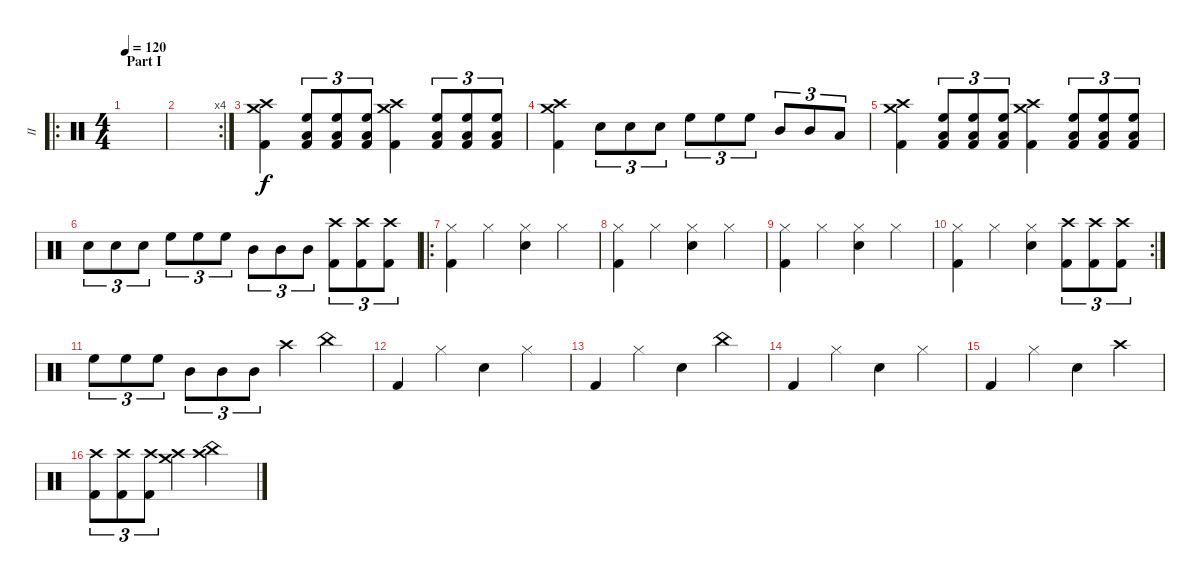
\track ("II" "II") {instrument percussion}
\staff {score}
\articulation defaults
\ro
\ts (4 4)
\section ("" "Part I")
\tempo 120
\clef neutral
\ks c
|
\rc 4
|
("Kick (hit) 2" "Crash high (hit)" "Crash medium (hit)").4 ("Kick (hit) 2" "High Floor Tom (hit)" "Low Floor Tom (hit)").8{tu (3 2)} ("Kick (hit) 2" "High Floor Tom (hit)" "Low Floor Tom (hit)").8{tu (3 2)} ("Kick (hit) 2" "High Floor Tom (hit)" "Low Floor Tom (hit)").8{tu (3 2)} ("Kick (hit) 2" "Crash high (hit)" "Crash medium (hit)").4 ("Kick (hit) 2" "High Floor Tom (hit)" "Low Floor Tom (hit)").8{tu (3 2)} ("Kick (hit) 2" "High Floor Tom (hit)" "Low Floor Tom (hit)").8{tu (3 2)} ("Kick (hit) 2" "High Floor Tom (hit)" "Low Floor Tom (hit)").8{tu (3 2)} |
("Kick (hit) 2" "Crash high (hit)" "Crash medium (hit)").4 "Snare (hit) 2".8{tu (3 2)} "Snare (hit) 2".8{tu (3 2)} "Snare (hit) 2".8{tu (3 2)} "High Floor Tom (hit)".8{tu (3 2)} "High Floor Tom (hit)".8{tu (3 2)} "High Floor Tom (hit)".8{tu (3 2)} "Mid Tom (hit)".8{tu (3 2)} "Mid Tom (hit)".8{tu (3 2)} "Low Floor Tom (hit)".8{tu (3 2)} |
("Kick (hit) 2" "Crash high (hit)" "Crash medium (hit)").4 ("Kick (hit) 2" "High Floor Tom (hit)" "Low Floor Tom (hit)").8{tu (3 2)} ("Kick (hit) 2" "High Floor Tom (hit)" "Low Floor Tom (hit)").8{tu (3 2)} ("Kick (hit) 2" "High Floor Tom (hit)" "Low Floor Tom (hit)").8{tu (3 2)} ("Kick (hit) 2" "Crash high (hit)" "Crash medium (hit)").4 ("Kick (hit) 2" "High Floor Tom (hit)" "Low Floor Tom (hit)").8{tu (3 2)} ("Kick (hit) 2" "High Floor Tom (hit)" "Low Floor Tom (hit)").8{tu (3 2)} ("Kick (hit) 2" "High Floor Tom (hit)" "Low Floor Tom (hit)").8{tu (3 2)} |
"Snare (hit) 2".8{tu (3 2)} "Snare (hit) 2".8{tu (3 2)} "Snare (hit) 2".8{tu (3 2)} "High Floor Tom (hit)".8{tu (3 2)} "High Floor Tom (hit)".8{tu (3 2)} "High Floor Tom (hit)".8{tu (3 2)} "Mid Tom (hit)".8{tu (3 2)} "Mid Tom (hit)".8{tu (3 2)} "Mid Tom (hit)".8{tu (3 2)} ("Kick (hit) 2" "Crash high (hit)").8{tu (3 2)} ("Kick (hit) 2" "Crash high (hit)").8{tu (3 2)} ("Kick (hit) 2" "Crash high (hit)").8{tu (3 2)} |
\ro
("Kick (hit) 2" "Hi-Hat (closed)").4 "Hi-Hat (closed)".4 ("Hi-Hat (closed)" "Snare (hit) 2").4 "Hi-Hat (closed)".4 |
("Kick (hit) 2" "Hi-Hat (closed)").4 "Hi-Hat (closed)".4 ("Hi-Hat (closed)" "Snare (hit) 2").4 "Hi-Hat (closed)".4 |
("Kick (hit) 2" "Hi-Hat (closed)").4 "Hi-Hat (closed)".4 ("Hi-Hat (closed)" "Snare (hit) 2").4 "Hi-Hat (closed)".4 |
\rc 2
("Kick (hit) 2" "Hi-Hat (closed)").4 "Hi-Hat (closed)".4 ("Hi-Hat (closed)" "Snare (hit) 2").4 ("Kick (hit) 2" "Crash high (hit)").8{tu (3 2)} ("Kick (hit) 2" "Crash high (hit)").8{tu (3 2)} ("Kick (hit) 2" "Crash high (hit)").8{tu (3 2)} |
"High Floor Tom (hit)".8{tu (3 2)} "High Floor Tom (hit)".8{tu (3 2)} "High Floor Tom (hit)".8{tu (3 2)} "Mid Tom (hit)".8{tu (3 2)} "Mid Tom (hit)".8{tu (3 2)} "Mid Tom (hit)".8{tu (3 2)} "Crash high (hit)".4 "China (hit)".4 |
"Kick (hit) 2".4 "Hi-Hat (closed)".4 "Snare (hit) 2".4 "Hi-Hat (closed)".4 |
"Kick (hit) 2".4 "Hi-Hat (closed)".4 "Snare (hit) 2".4 "China (hit)".4 |
"Kick (hit) 2".4 "Hi-Hat (closed)".4 "Snare (hit) 2".4 "Hi-Hat (closed)".4 |
"Kick (hit) 2".4 "Hi-Hat (closed)".4 "Snare (hit) 2".4 "Crash high (hit)".4 |
("Kick (hit) 2" "Crash high (hit)").8{tu (3 2)} ("Kick (hit) 2" "Crash high (hit)").8{tu (3 2)} ("Kick (hit) 2" "Crash high (hit)").8{tu (3 2)} ("Crash high (hit)" "Crash medium (hit)").4 ("Crash high (hit)" "China (hit)").2
